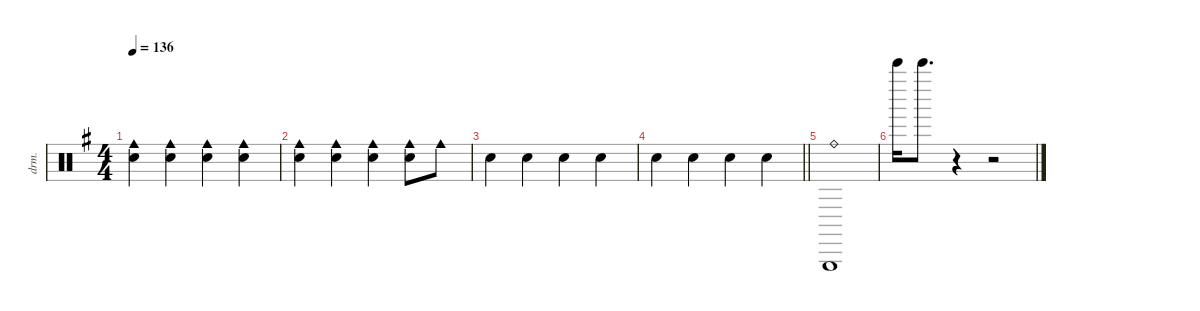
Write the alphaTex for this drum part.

\defaultSystemsLayout 4
\hideDynamics
\bracketExtendMode nobrackets
\otherSystemsTrackNameOrientation horizontal
\track ("Percussions" "drm.") {instrument percussion}
\staff {score}
\articulation defaults
\ts (4 4)
\tempo 136
\clef neutral
\ks g
("Hand Clap (hit)"{acc forcenatural} "Cowbell medium (hit)"{acc forcenatural}).4{dy f beam Down} ("Hand Clap (hit)"{acc forcenatural} "Cowbell medium (hit)"{acc forcenatural}).4{beam Down} ("Hand Clap (hit)"{acc forcenatural} "Cowbell medium (hit)"{acc forcenatural}).4{beam Down} ("Hand Clap (hit)"{acc forcenatural} "Cowbell medium (hit)"{acc forcenatural}).4{beam Down} |
("Hand Clap (hit)"{acc forcenatural} "Cowbell medium (hit)"{acc forcenatural}).4{beam Down} ("Hand Clap (hit)"{acc forcenatural} "Cowbell medium (hit)"{acc forcenatural}).4{beam Down} ("Hand Clap (hit)"{acc forcenatural} "Cowbell medium (hit)"{acc forcenatural}).4{beam Down} ("Hand Clap (hit)"{acc forcenatural} "Cowbell medium (hit)"{acc forcenatural}).8{beam Down} "Cowbell medium (hit)"{acc forcenatural}.8{beam Down} |
"Hand Clap (hit)"{acc forcenatural}.4{beam Down} "Hand Clap (hit)"{acc forcenatural}.4{beam Down} "Hand Clap (hit)"{acc forcenatural}.4{beam Down} "Hand Clap (hit)"{acc forcenatural}.4{beam Down} |
\barLineRight lightlight "Hand Clap (hit)"{acc forcenatural}.4{beam Down} "Hand Clap (hit)"{acc forcenatural}.4{beam Down} "Hand Clap (hit)"{acc forcenatural}.4{beam Down} "Hand Clap (hit)"{acc forcenatural}.4{beam Down}
|
("Triangle (hit)"{acc forcenatural} "Ride (bell)"{acc forcenatural}).1{beam Up} |
"Bell Tree (hit)"{acc forcenatural}.16{beam Down} "Bell Tree (hit)"{acc forcenatural}.8{d beam Down} r.4{beam Down} r.2{beam Down}
